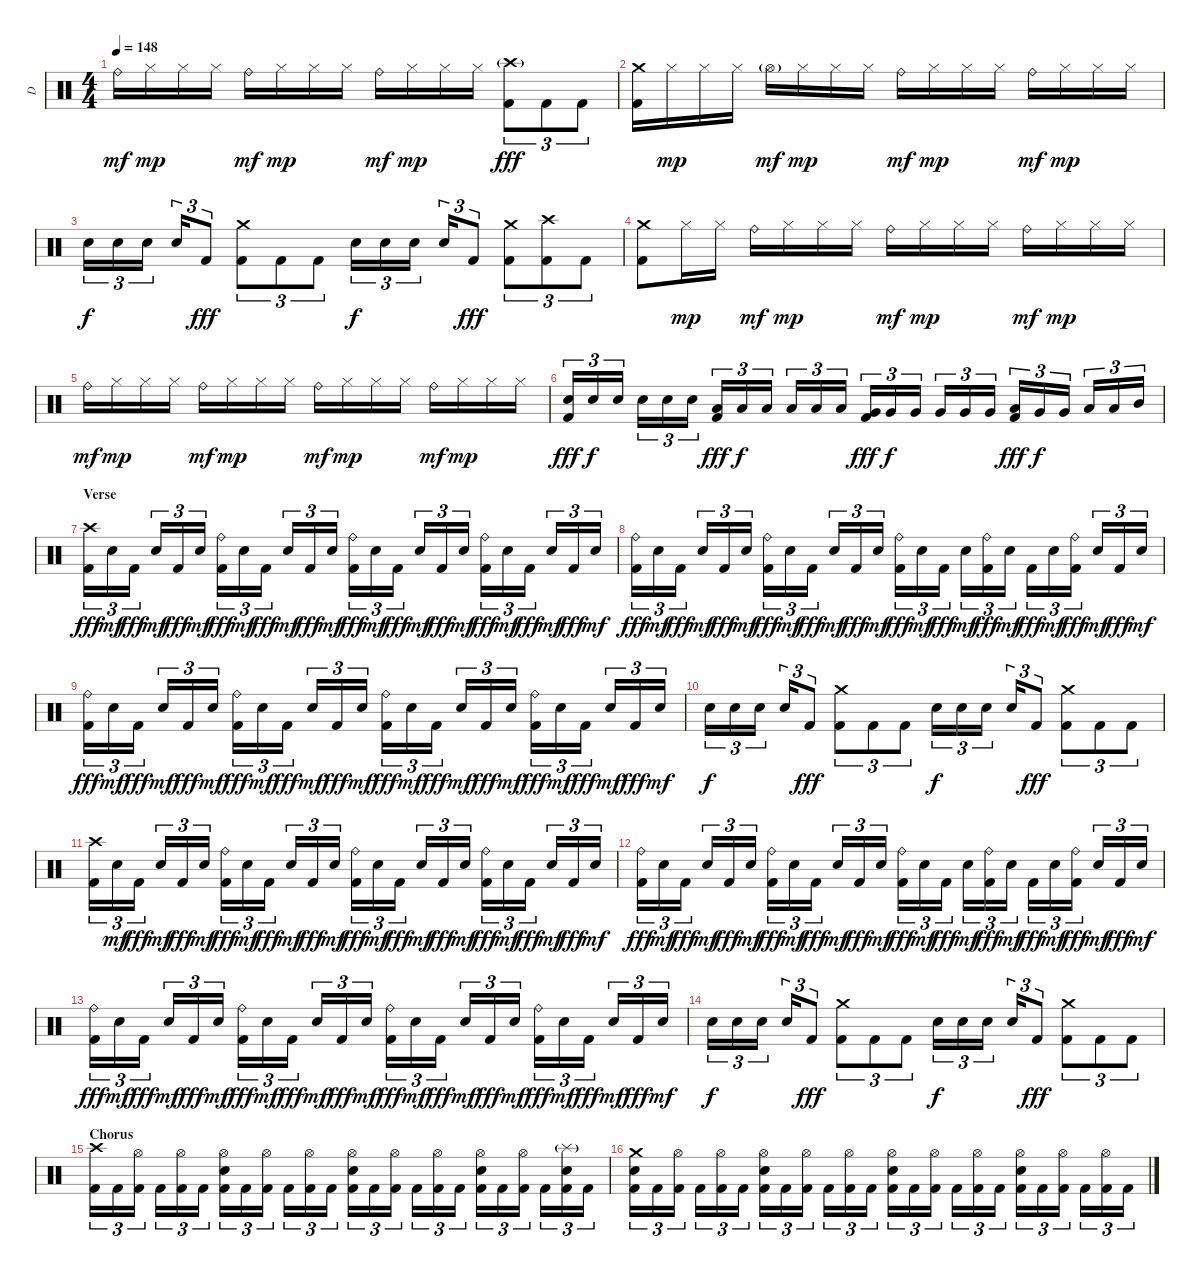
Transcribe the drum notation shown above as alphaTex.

\track ("D" "D") {instrument percussion}
\staff {score}
\articulation defaults
\ts (4 4)
\tempo 148
\clef neutral
\ks c "Ride (bell)".16{dy mf} "Hi-Hat (closed)".16{dy mp} "Hi-Hat (closed)".16 "Hi-Hat (closed)".16 "Ride (bell)".16{dy mf} "Hi-Hat (closed)".16{dy mp} "Hi-Hat (closed)".16 "Hi-Hat (closed)".16 "Ride (bell)".16{dy mf} "Hi-Hat (closed)".16{dy mp} "Hi-Hat (closed)".16 "Hi-Hat (closed)".16
("Crash high (hit)"{g} "Kick (hit) 2").8{tu (3 2) dy fff} "Kick (hit) 2".8{tu (3 2)} "Kick (hit) 2".8{tu (3 2)} |
("Crash medium (hit)" "Kick (hit) 2").16 "Hi-Hat (closed)".16{dy mp} "Hi-Hat (closed)".16 "Hi-Hat (closed)".16 "Hi-Hat (open)"{g}.16{dy mf} "Hi-Hat (closed)".16{dy mp} "Hi-Hat (closed)".16 "Hi-Hat (closed)".16 "Ride (bell)".16{dy mf} "Hi-Hat (closed)".16{dy mp} "Hi-Hat (closed)".16 "Hi-Hat (closed)".16 "Ride (bell)".16{dy mf} "Hi-Hat (closed)".16{dy mp} "Hi-Hat (closed)".16 "Hi-Hat (closed)".16 |
"Electric Snare (hit)".16{tu (3 2) dy f} "Electric Snare (hit)".16{tu (3 2)} "Electric Snare (hit)".16{tu (3 2)} "Electric Snare (hit)".16{tu (3 2)} "Kick (hit) 2".8{tu (3 2) dy fff} ("Crash medium (hit)" "Kick (hit) 2").8{tu (3 2)} "Kick (hit) 2".8{tu (3 2)} "Kick (hit) 2".8{tu (3 2)} "Electric Snare (hit)".16{tu (3 2) dy f} "Electric Snare (hit)".16{tu (3 2)} "Electric Snare (hit)".16{tu (3 2)} "Electric Snare (hit)".16{tu (3 2)} "Kick (hit) 2".8{tu (3 2) dy fff} ("Crash medium (hit)" "Kick (hit) 2").8{tu (3 2)} ("Crash high (hit)" "Kick (hit) 2").8{tu (3 2)} "Kick (hit) 2".8{tu (3 2)} |
("Crash medium (hit)" "Kick (hit) 2").8 "Hi-Hat (closed)".16{dy mp} "Hi-Hat (closed)".16 "Ride (bell)".16{dy mf} "Hi-Hat (closed)".16{dy mp} "Hi-Hat (closed)".16 "Hi-Hat (closed)".16 "Ride (bell)".16{dy mf} "Hi-Hat (closed)".16{dy mp} "Hi-Hat (closed)".16 "Hi-Hat (closed)".16 "Ride (bell)".16{dy mf} "Hi-Hat (closed)".16{dy mp} "Hi-Hat (closed)".16 "Hi-Hat (closed)".16 |
"Ride (bell)".16{dy mf} "Hi-Hat (closed)".16{dy mp} "Hi-Hat (closed)".16 "Hi-Hat (closed)".16 "Ride (bell)".16{dy mf} "Hi-Hat (closed)".16{dy mp} "Hi-Hat (closed)".16 "Hi-Hat (closed)".16 "Ride (bell)".16{dy mf} "Hi-Hat (closed)".16{dy mp} "Hi-Hat (closed)".16 "Hi-Hat (closed)".16 "Ride (bell)".16{dy mf} "Hi-Hat (closed)".16{dy mp} "Hi-Hat (closed)".16 "Hi-Hat (closed)".16 |
("Electric Snare (hit)" "Kick (hit) 2").16{tu (3 2) dy fff} "Electric Snare (hit)".16{tu (3 2) dy f} "Electric Snare (hit)".16{tu (3 2)} "Electric Snare (hit)".16{tu (3 2)} "Electric Snare (hit)".16{tu (3 2)} "Electric Snare (hit)".16{tu (3 2)} ("Low Tom (hit)" "Kick (hit) 2").16{tu (3 2) dy fff} "Low Tom (hit)".16{tu (3 2) dy f} "Low Tom (hit)".16{tu (3 2)} "Low Tom (hit)".16{tu (3 2)} "Low Tom (hit)".16{tu (3 2)} "Low Tom (hit)".16{tu (3 2)} ("Very Low Tom (hit)" "Kick (hit) 2").16{tu (3 2) dy fff} "Very Low Tom (hit)".16{tu (3 2) dy f} "Very Low Tom (hit)".16{tu (3 2)} "Very Low Tom (hit)".16{tu (3 2)} "Very Low Tom (hit)".16{tu (3 2)} "Very Low Tom (hit)".16{tu (3 2)} ("Low Floor Tom (hit)" "Kick (hit) 2").16{tu (3 2) dy fff} "Very Low Tom (hit)".16{tu (3 2) dy f} "Very Low Tom (hit)".16{tu (3 2)} "Low Tom (hit)".16{tu (3 2)} "Low Tom (hit)".16{tu (3 2)} "Mid Tom (hit)".16{tu (3 2)} |
\section ("" "Verse")
("Crash high (hit)" "Kick (hit) 2").16{tu (3 2) dy fff} "Electric Snare (hit)".16{tu (3 2) dy mf} "Kick (hit) 2".16{tu (3 2) dy fff} "Electric Snare (hit)".16{tu (3 2) dy mf} "Kick (hit) 2".16{tu (3 2) dy fff} "Electric Snare (hit)".16{tu (3 2) dy mf} ("Ride (bell)" "Kick (hit) 2").16{tu (3 2) dy fff} "Electric Snare (hit)".16{tu (3 2) dy mf} "Kick (hit) 2".16{tu (3 2) dy fff} "Electric Snare (hit)".16{tu (3 2) dy mf} "Kick (hit) 2".16{tu (3 2) dy fff} "Electric Snare (hit)".16{tu (3 2) dy mf} ("Ride (bell)" "Kick (hit) 2").16{tu (3 2) dy fff} "Electric Snare (hit)".16{tu (3 2) dy mf} "Kick (hit) 2".16{tu (3 2) dy fff} "Electric Snare (hit)".16{tu (3 2) dy mf} "Kick (hit) 2".16{tu (3 2) dy fff} "Electric Snare (hit)".16{tu (3 2) dy mf} ("Ride (bell)" "Kick (hit) 2").16{tu (3 2) dy fff} "Electric Snare (hit)".16{tu (3 2) dy mf} "Kick (hit) 2".16{tu (3 2) dy fff} "Electric Snare (hit)".16{tu (3 2) dy mf} "Kick (hit) 2".16{tu (3 2) dy fff} "Electric Snare (hit)".16{tu (3 2) dy mf} |
("Ride (bell)" "Kick (hit) 2").16{tu (3 2) dy fff} "Electric Snare (hit)".16{tu (3 2) dy mf} "Kick (hit) 2".16{tu (3 2) dy fff} "Electric Snare (hit)".16{tu (3 2) dy mf} "Kick (hit) 2".16{tu (3 2) dy fff} "Electric Snare (hit)".16{tu (3 2) dy mf} ("Ride (bell)" "Kick (hit) 2").16{tu (3 2) dy fff} "Electric Snare (hit)".16{tu (3 2) dy mf} "Kick (hit) 2".16{tu (3 2) dy fff} "Electric Snare (hit)".16{tu (3 2) dy mf} "Kick (hit) 2".16{tu (3 2) dy fff} "Electric Snare (hit)".16{tu (3 2) dy mf} ("Ride (bell)" "Kick (hit) 2").16{tu (3 2) dy fff} "Electric Snare (hit)".16{tu (3 2) dy mf} "Kick (hit) 2".16{tu (3 2) dy fff} "Electric Snare (hit)".16{tu (3 2) dy mf} ("Ride (bell)" "Kick (hit) 2").16{tu (3 2) dy fff} "Electric Snare (hit)".16{tu (3 2) dy mf} "Kick (hit) 2".16{tu (3 2) dy fff} "Electric Snare (hit)".16{tu (3 2) dy mf} ("Ride (bell)" "Kick (hit) 2").16{tu (3 2) dy fff} "Electric Snare (hit)".16{tu (3 2) dy mf} "Kick (hit) 2".16{tu (3 2) dy fff} "Electric Snare (hit)".16{tu (3 2) dy mf} |
("Ride (bell)" "Kick (hit) 2").16{tu (3 2) dy fff} "Electric Snare (hit)".16{tu (3 2) dy mf} "Kick (hit) 2".16{tu (3 2) dy fff} "Electric Snare (hit)".16{tu (3 2) dy mf} "Kick (hit) 2".16{tu (3 2) dy fff} "Electric Snare (hit)".16{tu (3 2) dy mf} ("Ride (bell)" "Kick (hit) 2").16{tu (3 2) dy fff} "Electric Snare (hit)".16{tu (3 2) dy mf} "Kick (hit) 2".16{tu (3 2) dy fff} "Electric Snare (hit)".16{tu (3 2) dy mf} "Kick (hit) 2".16{tu (3 2) dy fff} "Electric Snare (hit)".16{tu (3 2) dy mf} ("Ride (bell)" "Kick (hit) 2").16{tu (3 2) dy fff} "Electric Snare (hit)".16{tu (3 2) dy mf} "Kick (hit) 2".16{tu (3 2) dy fff} "Electric Snare (hit)".16{tu (3 2) dy mf} "Kick (hit) 2".16{tu (3 2) dy fff} "Electric Snare (hit)".16{tu (3 2) dy mf} ("Ride (bell)" "Kick (hit) 2").16{tu (3 2) dy fff} "Electric Snare (hit)".16{tu (3 2) dy mf} "Kick (hit) 2".16{tu (3 2) dy fff} "Electric Snare (hit)".16{tu (3 2) dy mf} "Kick (hit) 2".16{tu (3 2) dy fff} "Electric Snare (hit)".16{tu (3 2) dy mf} |
"Electric Snare (hit)".16{tu (3 2) dy f} "Electric Snare (hit)".16{tu (3 2)} "Electric Snare (hit)".16{tu (3 2)} "Electric Snare (hit)".16{tu (3 2)} "Kick (hit) 2".8{tu (3 2) dy fff} ("Crash medium (hit)" "Kick (hit) 2").8{tu (3 2)} "Kick (hit) 2".8{tu (3 2)} "Kick (hit) 2".8{tu (3 2)} "Electric Snare (hit)".16{tu (3 2) dy f} "Electric Snare (hit)".16{tu (3 2)} "Electric Snare (hit)".16{tu (3 2)} "Electric Snare (hit)".16{tu (3 2)} "Kick (hit) 2".8{tu (3 2) dy fff} ("Crash medium (hit)" "Kick (hit) 2").8{tu (3 2)} "Kick (hit) 2".8{tu (3 2)} "Kick (hit) 2".8{tu (3 2)} |
("Crash high (hit)" "Kick (hit) 2").16{tu (3 2)} "Electric Snare (hit)".16{tu (3 2) dy mf} "Kick (hit) 2".16{tu (3 2) dy fff} "Electric Snare (hit)".16{tu (3 2) dy mf} "Kick (hit) 2".16{tu (3 2) dy fff} "Electric Snare (hit)".16{tu (3 2) dy mf} ("Ride (bell)" "Kick (hit) 2").16{tu (3 2) dy fff} "Electric Snare (hit)".16{tu (3 2) dy mf} "Kick (hit) 2".16{tu (3 2) dy fff} "Electric Snare (hit)".16{tu (3 2) dy mf} "Kick (hit) 2".16{tu (3 2) dy fff} "Electric Snare (hit)".16{tu (3 2) dy mf} ("Ride (bell)" "Kick (hit) 2").16{tu (3 2) dy fff} "Electric Snare (hit)".16{tu (3 2) dy mf} "Kick (hit) 2".16{tu (3 2) dy fff} "Electric Snare (hit)".16{tu (3 2) dy mf} "Kick (hit) 2".16{tu (3 2) dy fff} "Electric Snare (hit)".16{tu (3 2) dy mf} ("Ride (bell)" "Kick (hit) 2").16{tu (3 2) dy fff} "Electric Snare (hit)".16{tu (3 2) dy mf} "Kick (hit) 2".16{tu (3 2) dy fff} "Electric Snare (hit)".16{tu (3 2) dy mf} "Kick (hit) 2".16{tu (3 2) dy fff} "Electric Snare (hit)".16{tu (3 2) dy mf} |
("Ride (bell)" "Kick (hit) 2").16{tu (3 2) dy fff} "Electric Snare (hit)".16{tu (3 2) dy mf} "Kick (hit) 2".16{tu (3 2) dy fff} "Electric Snare (hit)".16{tu (3 2) dy mf} "Kick (hit) 2".16{tu (3 2) dy fff} "Electric Snare (hit)".16{tu (3 2) dy mf} ("Ride (bell)" "Kick (hit) 2").16{tu (3 2) dy fff} "Electric Snare (hit)".16{tu (3 2) dy mf} "Kick (hit) 2".16{tu (3 2) dy fff} "Electric Snare (hit)".16{tu (3 2) dy mf} "Kick (hit) 2".16{tu (3 2) dy fff} "Electric Snare (hit)".16{tu (3 2) dy mf} ("Ride (bell)" "Kick (hit) 2").16{tu (3 2) dy fff} "Electric Snare (hit)".16{tu (3 2) dy mf} "Kick (hit) 2".16{tu (3 2) dy fff} "Electric Snare (hit)".16{tu (3 2) dy mf} ("Ride (bell)" "Kick (hit) 2").16{tu (3 2) dy fff} "Electric Snare (hit)".16{tu (3 2) dy mf} "Kick (hit) 2".16{tu (3 2) dy fff} "Electric Snare (hit)".16{tu (3 2) dy mf} ("Ride (bell)" "Kick (hit) 2").16{tu (3 2) dy fff} "Electric Snare (hit)".16{tu (3 2) dy mf} "Kick (hit) 2".16{tu (3 2) dy fff} "Electric Snare (hit)".16{tu (3 2) dy mf} |
("Ride (bell)" "Kick (hit) 2").16{tu (3 2) dy fff} "Electric Snare (hit)".16{tu (3 2) dy mf} "Kick (hit) 2".16{tu (3 2) dy fff} "Electric Snare (hit)".16{tu (3 2) dy mf} "Kick (hit) 2".16{tu (3 2) dy fff} "Electric Snare (hit)".16{tu (3 2) dy mf} ("Ride (bell)" "Kick (hit) 2").16{tu (3 2) dy fff} "Electric Snare (hit)".16{tu (3 2) dy mf} "Kick (hit) 2".16{tu (3 2) dy fff} "Electric Snare (hit)".16{tu (3 2) dy mf} "Kick (hit) 2".16{tu (3 2) dy fff} "Electric Snare (hit)".16{tu (3 2) dy mf} ("Ride (bell)" "Kick (hit) 2").16{tu (3 2) dy fff} "Electric Snare (hit)".16{tu (3 2) dy mf} "Kick (hit) 2".16{tu (3 2) dy fff} "Electric Snare (hit)".16{tu (3 2) dy mf} "Kick (hit) 2".16{tu (3 2) dy fff} "Electric Snare (hit)".16{tu (3 2) dy mf} ("Ride (bell)" "Kick (hit) 2").16{tu (3 2) dy fff} "Electric Snare (hit)".16{tu (3 2) dy mf} "Kick (hit) 2".16{tu (3 2) dy fff} "Electric Snare (hit)".16{tu (3 2) dy mf} "Kick (hit) 2".16{tu (3 2) dy fff} "Electric Snare (hit)".16{tu (3 2) dy mf} |
"Electric Snare (hit)".16{tu (3 2) dy f} "Electric Snare (hit)".16{tu (3 2)} "Electric Snare (hit)".16{tu (3 2)} "Electric Snare (hit)".16{tu (3 2)} "Kick (hit) 2".8{tu (3 2) dy fff} ("Crash medium (hit)" "Kick (hit) 2").8{tu (3 2)} "Kick (hit) 2".8{tu (3 2)} "Kick (hit) 2".8{tu (3 2)} "Electric Snare (hit)".16{tu (3 2) dy f} "Electric Snare (hit)".16{tu (3 2)} "Electric Snare (hit)".16{tu (3 2)} "Electric Snare (hit)".16{tu (3 2)} "Kick (hit) 2".8{tu (3 2) dy fff} ("Crash medium (hit)" "Kick (hit) 2").8{tu (3 2)} "Kick (hit) 2".8{tu (3 2)} "Kick (hit) 2".8{tu (3 2)} |
\section ("" "Chorus")
("Crash high (hit)" "Kick (hit) 2").16{tu (3 2)} "Kick (hit) 2".16{tu (3 2)} ("Hi-Hat (open)" "Kick (hit) 2").16{tu (3 2)} "Kick (hit) 2".16{tu (3 2)} ("Hi-Hat (open)" "Kick (hit) 2").16{tu (3 2)} "Kick (hit) 2".16{tu (3 2)} ("Hi-Hat (open)" "Electric Snare (hit)" "Kick (hit) 2").16{tu (3 2)} "Kick (hit) 2".16{tu (3 2)} ("Hi-Hat (open)" "Kick (hit) 2").16{tu (3 2)} "Kick (hit) 2".16{tu (3 2)} ("Hi-Hat (open)" "Kick (hit) 2").16{tu (3 2)} "Kick (hit) 2".16{tu (3 2)} ("Hi-Hat (open)" "Electric Snare (hit)" "Kick (hit) 2").16{tu (3 2)} "Kick (hit) 2".16{tu (3 2)} ("Hi-Hat (open)" "Kick (hit) 2").16{tu (3 2)} "Kick (hit) 2".16{tu (3 2)} ("Hi-Hat (open)" "Kick (hit) 2").16{tu (3 2)} "Kick (hit) 2".16{tu (3 2)} ("Hi-Hat (open)" "Electric Snare (hit)" "Kick (hit) 2").16{tu (3 2)} "Kick (hit) 2".16{tu (3 2)} ("Hi-Hat (open)" "Kick (hit) 2").16{tu (3 2)} "Kick (hit) 2".16{tu (3 2)} ("Splash (hit)"{g} "Electric Snare (hit)" "Kick (hit) 2").16{tu (3 2)} "Kick (hit) 2".16{tu (3 2)} |
("Crash medium (hit)" "Electric Snare (hit)" "Kick (hit) 2").16{tu (3 2)} "Kick (hit) 2".16{tu (3 2)} ("Hi-Hat (open)" "Kick (hit) 2").16{tu (3 2)} "Kick (hit) 2".16{tu (3 2)} ("Hi-Hat (open)" "Kick (hit) 2").16{tu (3 2)} "Kick (hit) 2".16{tu (3 2)} ("Hi-Hat (open)" "Electric Snare (hit)" "Kick (hit) 2").16{tu (3 2)} "Kick (hit) 2".16{tu (3 2)} ("Hi-Hat (open)" "Kick (hit) 2").16{tu (3 2)} "Kick (hit) 2".16{tu (3 2)} ("Hi-Hat (open)" "Kick (hit) 2").16{tu (3 2)} "Kick (hit) 2".16{tu (3 2)} ("Hi-Hat (open)" "Electric Snare (hit)" "Kick (hit) 2").16{tu (3 2)} "Kick (hit) 2".16{tu (3 2)} ("Hi-Hat (open)" "Kick (hit) 2").16{tu (3 2)} "Kick (hit) 2".16{tu (3 2)} ("Hi-Hat (open)" "Kick (hit) 2").16{tu (3 2)} "Kick (hit) 2".16{tu (3 2)} ("Hi-Hat (open)" "Electric Snare (hit)" "Kick (hit) 2").16{tu (3 2)} "Kick (hit) 2".16{tu (3 2)} ("Hi-Hat (open)" "Kick (hit) 2").16{tu (3 2)} "Kick (hit) 2".16{tu (3 2)} ("Hi-Hat (open)" "Kick (hit) 2").16{tu (3 2)} "Kick (hit) 2".16{tu (3 2)}
